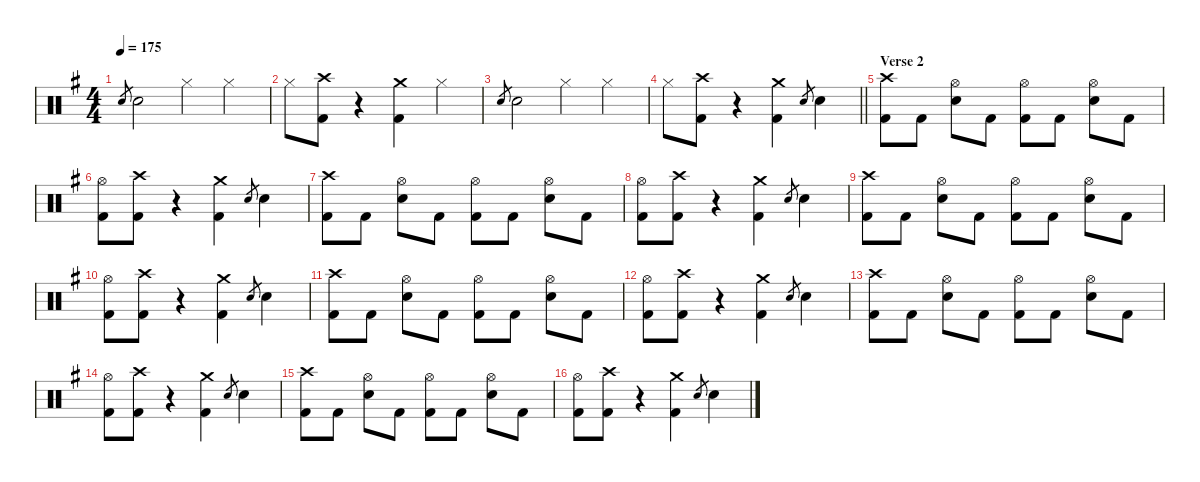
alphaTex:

\hideDynamics
\bracketExtendMode nobrackets
\singleTrackTrackNamePolicy hidden
\multiTrackTrackNamePolicy hidden
\firstSystemTrackNameMode fullname
\firstSystemTrackNameOrientation horizontal
\otherSystemsTrackNameOrientation horizontal
\track ("Drumkit" "Drums") {instrument percussion}
\staff {score}
\articulation defaults
\ts (4 4)
\tempo 175
\clef neutral
\ks g "Snare (hit) 2"{acc forcenatural}.8{gr dy mf beam Up} "Snare (hit) 2"{acc forcenatural}.2{dy f beam Down} "Hi-Hat (closed)"{acc forcenatural}.4{beam Down} "Hi-Hat (closed)"{acc forcenatural}.4{beam Down}
|
"Hi-Hat (closed)"{acc forcenatural}.8{beam Down} ("Crash high (hit)"{acc forcenatural} "Kick (hit) 2"{acc forcenatural}).8{beam Down} r.4{beam Down} ("Crash medium (hit)"{acc forcenatural} "Kick (hit) 2"{acc forcenatural}).4{beam Down} "Hi-Hat (closed)"{acc forcenatural}.4{beam Down} |
"Snare (hit) 2"{acc forcenatural}.8{gr dy mf beam Up} "Snare (hit) 2"{acc forcenatural}.2{dy f beam Down} "Hi-Hat (closed)"{acc forcenatural}.4{beam Down} "Hi-Hat (closed)"{acc forcenatural}.4{beam Down} |
\barLineRight lightlight "Hi-Hat (closed)"{acc forcenatural}.8{beam Down}
("Crash high (hit)"{acc forcenatural} "Kick (hit) 2"{acc forcenatural}).8{beam Down} r.4{beam Down} ("Crash medium (hit)"{acc forcenatural} "Kick (hit) 2"{acc forcenatural}).4{beam Down} "Snare (hit) 2"{acc forcenatural}.8{gr dy mf beam Up} "Snare (hit) 2"{acc forcenatural}.4{dy f beam Down} |
\section ("" "Verse 2")
("Crash high (hit)"{acc forcenatural} "Kick (hit) 2"{acc forcenatural}).8{beam Down} "Kick (hit) 2"{acc forcenatural}.8{dy fff beam Down} ("Hi-Hat (open)"{acc forcenatural} "Snare (hit) 2"{acc forcenatural}).8{dy f beam Down} "Kick (hit) 2"{acc forcenatural}.8{dy fff beam Down} ("Hi-Hat (open)"{acc forcenatural} "Kick (hit) 2"{acc forcenatural}).8{dy f beam Down} "Kick (hit) 2"{acc forcenatural}.8{dy fff beam Down} ("Hi-Hat (open)"{acc forcenatural} "Snare (hit) 2"{acc forcenatural}).8{dy f beam Down} "Kick (hit) 2"{acc forcenatural}.8{dy fff beam Down} |
("Hi-Hat (open)"{acc forcenatural} "Kick (hit) 2"{acc forcenatural}).8{dy f beam Down} ("Crash high (hit)"{acc forcenatural} "Kick (hit) 2"{acc forcenatural}).8{beam Down} r.4{beam Down} ("Crash medium (hit)"{acc forcenatural} "Kick (hit) 2"{acc forcenatural}).4{beam Down} "Snare (hit) 2"{acc forcenatural}.8{gr dy mf beam Up} "Snare (hit) 2"{acc forcenatural}.4{dy f beam Down} |
("Crash high (hit)"{acc forcenatural} "Kick (hit) 2"{acc forcenatural}).8{beam Down} "Kick (hit) 2"{acc forcenatural}.8{dy fff beam Down} ("Hi-Hat (open)"{acc forcenatural} "Snare (hit) 2"{acc forcenatural}).8{dy f beam Down} "Kick (hit) 2"{acc forcenatural}.8{dy fff beam Down} ("Hi-Hat (open)"{acc forcenatural} "Kick (hit) 2"{acc forcenatural}).8{dy f beam Down} "Kick (hit) 2"{acc forcenatural}.8{dy fff beam Down} ("Hi-Hat (open)"{acc forcenatural} "Snare (hit) 2"{acc forcenatural}).8{dy f beam Down} "Kick (hit) 2"{acc forcenatural}.8{dy fff beam Down} |
("Hi-Hat (open)"{acc forcenatural} "Kick (hit) 2"{acc forcenatural}).8{dy f beam Down} ("Crash high (hit)"{acc forcenatural} "Kick (hit) 2"{acc forcenatural}).8{beam Down} r.4{beam Down} ("Crash medium (hit)"{acc forcenatural} "Kick (hit) 2"{acc forcenatural}).4{beam Down} "Snare (hit) 2"{acc forcenatural}.8{gr dy mf beam Up} "Snare (hit) 2"{acc forcenatural}.4{dy f beam Down} |
("Crash high (hit)"{acc forcenatural} "Kick (hit) 2"{acc forcenatural}).8{beam Down} "Kick (hit) 2"{acc forcenatural}.8{dy fff beam Down} ("Hi-Hat (open)"{acc forcenatural} "Snare (hit) 2"{acc forcenatural}).8{dy f beam Down} "Kick (hit) 2"{acc forcenatural}.8{dy fff beam Down} ("Hi-Hat (open)"{acc forcenatural} "Kick (hit) 2"{acc forcenatural}).8{dy f beam Down} "Kick (hit) 2"{acc forcenatural}.8{dy fff beam Down} ("Hi-Hat (open)"{acc forcenatural} "Snare (hit) 2"{acc forcenatural}).8{dy f beam Down} "Kick (hit) 2"{acc forcenatural}.8{dy fff beam Down} |
("Hi-Hat (open)"{acc forcenatural} "Kick (hit) 2"{acc forcenatural}).8{dy f beam Down} ("Crash high (hit)"{acc forcenatural} "Kick (hit) 2"{acc forcenatural}).8{beam Down} r.4{beam Down} ("Crash medium (hit)"{acc forcenatural} "Kick (hit) 2"{acc forcenatural}).4{beam Down} "Snare (hit) 2"{acc forcenatural}.8{gr dy mf beam Up} "Snare (hit) 2"{acc forcenatural}.4{dy f beam Down} |
("Crash high (hit)"{acc forcenatural} "Kick (hit) 2"{acc forcenatural}).8{beam Down} "Kick (hit) 2"{acc forcenatural}.8{dy fff beam Down} ("Hi-Hat (open)"{acc forcenatural} "Snare (hit) 2"{acc forcenatural}).8{dy f beam Down} "Kick (hit) 2"{acc forcenatural}.8{dy fff beam Down} ("Hi-Hat (open)"{acc forcenatural} "Kick (hit) 2"{acc forcenatural}).8{dy f beam Down} "Kick (hit) 2"{acc forcenatural}.8{dy fff beam Down} ("Hi-Hat (open)"{acc forcenatural} "Snare (hit) 2"{acc forcenatural}).8{dy f beam Down} "Kick (hit) 2"{acc forcenatural}.8{dy fff beam Down} |
("Hi-Hat (open)"{acc forcenatural} "Kick (hit) 2"{acc forcenatural}).8{dy f beam Down} ("Crash high (hit)"{acc forcenatural} "Kick (hit) 2"{acc forcenatural}).8{beam Down} r.4{beam Down} ("Crash medium (hit)"{acc forcenatural} "Kick (hit) 2"{acc forcenatural}).4{beam Down} "Snare (hit) 2"{acc forcenatural}.8{gr dy mf beam Up} "Snare (hit) 2"{acc forcenatural}.4{dy f beam Down} |
("Crash high (hit)"{acc forcenatural} "Kick (hit) 2"{acc forcenatural}).8{beam Down} "Kick (hit) 2"{acc forcenatural}.8{dy fff beam Down} ("Hi-Hat (open)"{acc forcenatural} "Snare (hit) 2"{acc forcenatural}).8{dy f beam Down} "Kick (hit) 2"{acc forcenatural}.8{dy fff beam Down} ("Hi-Hat (open)"{acc forcenatural} "Kick (hit) 2"{acc forcenatural}).8{dy f beam Down} "Kick (hit) 2"{acc forcenatural}.8{dy fff beam Down} ("Hi-Hat (open)"{acc forcenatural} "Snare (hit) 2"{acc forcenatural}).8{dy f beam Down} "Kick (hit) 2"{acc forcenatural}.8{dy fff beam Down} |
("Hi-Hat (open)"{acc forcenatural} "Kick (hit) 2"{acc forcenatural}).8{dy f beam Down} ("Crash high (hit)"{acc forcenatural} "Kick (hit) 2"{acc forcenatural}).8{beam Down} r.4{beam Down} ("Crash medium (hit)"{acc forcenatural} "Kick (hit) 2"{acc forcenatural}).4{beam Down} "Snare (hit) 2"{acc forcenatural}.8{gr dy mf beam Up} "Snare (hit) 2"{acc forcenatural}.4{dy f beam Down} |
("Crash high (hit)"{acc forcenatural} "Kick (hit) 2"{acc forcenatural}).8{beam Down} "Kick (hit) 2"{acc forcenatural}.8{dy fff beam Down} ("Hi-Hat (open)"{acc forcenatural} "Snare (hit) 2"{acc forcenatural}).8{dy f beam Down} "Kick (hit) 2"{acc forcenatural}.8{dy fff beam Down} ("Hi-Hat (open)"{acc forcenatural} "Kick (hit) 2"{acc forcenatural}).8{dy f beam Down} "Kick (hit) 2"{acc forcenatural}.8{dy fff beam Down} ("Hi-Hat (open)"{acc forcenatural} "Snare (hit) 2"{acc forcenatural}).8{dy f beam Down} "Kick (hit) 2"{acc forcenatural}.8{dy fff beam Down} |
("Hi-Hat (open)"{acc forcenatural} "Kick (hit) 2"{acc forcenatural}).8{dy f beam Down} ("Crash high (hit)"{acc forcenatural} "Kick (hit) 2"{acc forcenatural}).8{beam Down} r.4{beam Down} ("Crash medium (hit)"{acc forcenatural} "Kick (hit) 2"{acc forcenatural}).4{beam Down} "Snare (hit) 2"{acc forcenatural}.8{gr dy mf beam Up} "Snare (hit) 2"{acc forcenatural}.4{dy f beam Down}
